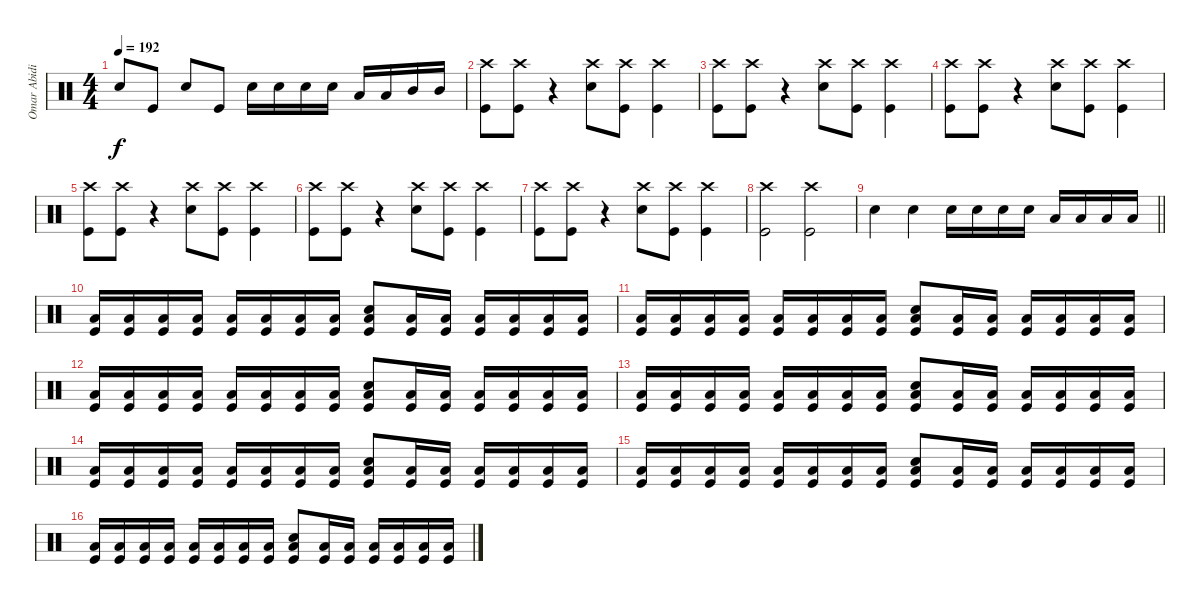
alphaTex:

\track ("Omar Abidi" "Omar Abidi") {instrument percussion}
\staff {score}
\articulation defaults
\ts (4 4)
\tempo 192
\clef neutral
\ks c "Snare (hit) 2".8{dy f} "Kick (hit)".8 "Snare (hit) 2".8 "Kick (hit)".8 "Snare (hit) 2".16 "Snare (hit) 2".16 "Snare (hit) 2".16 "Snare (hit) 2".16 "Low Floor Tom (hit)".16 "Low Floor Tom (hit)".16 "Mid Tom (hit)".16 "Mid Tom (hit)".16
|
("Crash high (hit)" "Kick (hit)").8 ("Crash high (hit)" "Kick (hit)").8 r.4 ("Crash high (hit)" "Snare (hit) 2").8 ("Crash high (hit)" "Kick (hit)").8 ("Crash high (hit)" "Kick (hit)").4 |
("Crash high (hit)" "Kick (hit)").8 ("Crash high (hit)" "Kick (hit)").8 r.4 ("Crash high (hit)" "Snare (hit) 2").8 ("Crash high (hit)" "Kick (hit)").8 ("Crash high (hit)" "Kick (hit)").4 |
("Crash high (hit)" "Kick (hit)").8 ("Crash high (hit)" "Kick (hit)").8 r.4 ("Crash high (hit)" "Snare (hit) 2").8 ("Crash high (hit)" "Kick (hit)").8 ("Crash high (hit)" "Kick (hit)").4 |
("Crash high (hit)" "Kick (hit)").8 ("Crash high (hit)" "Kick (hit)").8 r.4 ("Crash high (hit)" "Snare (hit) 2").8 ("Crash high (hit)" "Kick (hit)").8 ("Crash high (hit)" "Kick (hit)").4 |
("Crash high (hit)" "Kick (hit)").8 ("Crash high (hit)" "Kick (hit)").8 r.4 ("Crash high (hit)" "Snare (hit) 2").8 ("Crash high (hit)" "Kick (hit)").8 ("Crash high (hit)" "Kick (hit)").4 |
("Crash high (hit)" "Kick (hit)").8 ("Crash high (hit)" "Kick (hit)").8 r.4 ("Crash high (hit)" "Snare (hit) 2").8 ("Crash high (hit)" "Kick (hit)").8 ("Crash high (hit)" "Kick (hit)").4 |
("Crash high (hit)" "Kick (hit)").2 ("Crash high (hit)" "Kick (hit)").2 |
\barLineRight lightlight "Snare (hit) 2".4 "Snare (hit) 2".4 "Snare (hit) 2".16 "Snare (hit) 2".16 "Snare (hit) 2".16 "Snare (hit) 2".16 "Low Floor Tom (hit)".16 "Low Floor Tom (hit)".16 "Low Floor Tom (hit)".16 "Low Floor Tom (hit)".16
|
("Low Floor Tom (hit)" "Kick (hit)").16 ("Low Floor Tom (hit)" "Kick (hit)").16 ("Low Floor Tom (hit)" "Kick (hit)").16 ("Low Floor Tom (hit)" "Kick (hit)").16 ("Low Floor Tom (hit)" "Kick (hit)").16 ("Low Floor Tom (hit)" "Kick (hit)").16 ("Low Floor Tom (hit)" "Kick (hit)").16 ("Low Floor Tom (hit)" "Kick (hit)").16 ("Low Floor Tom (hit)" "Snare (hit) 2" "Kick (hit)").8 ("Low Floor Tom (hit)" "Kick (hit)").16 ("Low Floor Tom (hit)" "Kick (hit)").16 ("Low Floor Tom (hit)" "Kick (hit)").16 ("Low Floor Tom (hit)" "Kick (hit)").16 ("Low Floor Tom (hit)" "Kick (hit)").16 ("Low Floor Tom (hit)" "Kick (hit)").16 |
("Low Floor Tom (hit)" "Kick (hit)").16 ("Low Floor Tom (hit)" "Kick (hit)").16 ("Low Floor Tom (hit)" "Kick (hit)").16 ("Low Floor Tom (hit)" "Kick (hit)").16 ("Low Floor Tom (hit)" "Kick (hit)").16 ("Low Floor Tom (hit)" "Kick (hit)").16 ("Low Floor Tom (hit)" "Kick (hit)").16 ("Low Floor Tom (hit)" "Kick (hit)").16 ("Low Floor Tom (hit)" "Snare (hit) 2" "Kick (hit)").8 ("Low Floor Tom (hit)" "Kick (hit)").16 ("Low Floor Tom (hit)" "Kick (hit)").16 ("Low Floor Tom (hit)" "Kick (hit)").16 ("Low Floor Tom (hit)" "Kick (hit)").16 ("Low Floor Tom (hit)" "Kick (hit)").16 ("Low Floor Tom (hit)" "Kick (hit)").16 |
("Low Floor Tom (hit)" "Kick (hit)").16 ("Low Floor Tom (hit)" "Kick (hit)").16 ("Low Floor Tom (hit)" "Kick (hit)").16 ("Low Floor Tom (hit)" "Kick (hit)").16 ("Low Floor Tom (hit)" "Kick (hit)").16 ("Low Floor Tom (hit)" "Kick (hit)").16 ("Low Floor Tom (hit)" "Kick (hit)").16 ("Low Floor Tom (hit)" "Kick (hit)").16 ("Low Floor Tom (hit)" "Snare (hit) 2" "Kick (hit)").8 ("Low Floor Tom (hit)" "Kick (hit)").16 ("Low Floor Tom (hit)" "Kick (hit)").16 ("Low Floor Tom (hit)" "Kick (hit)").16 ("Low Floor Tom (hit)" "Kick (hit)").16 ("Low Floor Tom (hit)" "Kick (hit)").16 ("Low Floor Tom (hit)" "Kick (hit)").16 |
("Low Floor Tom (hit)" "Kick (hit)").16 ("Low Floor Tom (hit)" "Kick (hit)").16 ("Low Floor Tom (hit)" "Kick (hit)").16 ("Low Floor Tom (hit)" "Kick (hit)").16 ("Low Floor Tom (hit)" "Kick (hit)").16 ("Low Floor Tom (hit)" "Kick (hit)").16 ("Low Floor Tom (hit)" "Kick (hit)").16 ("Low Floor Tom (hit)" "Kick (hit)").16 ("Low Floor Tom (hit)" "Snare (hit) 2" "Kick (hit)").8 ("Low Floor Tom (hit)" "Kick (hit)").16 ("Low Floor Tom (hit)" "Kick (hit)").16 ("Low Floor Tom (hit)" "Kick (hit)").16 ("Low Floor Tom (hit)" "Kick (hit)").16 ("Low Floor Tom (hit)" "Kick (hit)").16 ("Low Floor Tom (hit)" "Kick (hit)").16 |
("Low Floor Tom (hit)" "Kick (hit)").16 ("Low Floor Tom (hit)" "Kick (hit)").16 ("Low Floor Tom (hit)" "Kick (hit)").16 ("Low Floor Tom (hit)" "Kick (hit)").16 ("Low Floor Tom (hit)" "Kick (hit)").16 ("Low Floor Tom (hit)" "Kick (hit)").16 ("Low Floor Tom (hit)" "Kick (hit)").16 ("Low Floor Tom (hit)" "Kick (hit)").16 ("Low Floor Tom (hit)" "Snare (hit) 2" "Kick (hit)").8 ("Low Floor Tom (hit)" "Kick (hit)").16 ("Low Floor Tom (hit)" "Kick (hit)").16 ("Low Floor Tom (hit)" "Kick (hit)").16 ("Low Floor Tom (hit)" "Kick (hit)").16 ("Low Floor Tom (hit)" "Kick (hit)").16 ("Low Floor Tom (hit)" "Kick (hit)").16 |
("Low Floor Tom (hit)" "Kick (hit)").16 ("Low Floor Tom (hit)" "Kick (hit)").16 ("Low Floor Tom (hit)" "Kick (hit)").16 ("Low Floor Tom (hit)" "Kick (hit)").16 ("Low Floor Tom (hit)" "Kick (hit)").16 ("Low Floor Tom (hit)" "Kick (hit)").16 ("Low Floor Tom (hit)" "Kick (hit)").16 ("Low Floor Tom (hit)" "Kick (hit)").16 ("Low Floor Tom (hit)" "Snare (hit) 2" "Kick (hit)").8 ("Low Floor Tom (hit)" "Kick (hit)").16 ("Low Floor Tom (hit)" "Kick (hit)").16 ("Low Floor Tom (hit)" "Kick (hit)").16 ("Low Floor Tom (hit)" "Kick (hit)").16 ("Low Floor Tom (hit)" "Kick (hit)").16 ("Low Floor Tom (hit)" "Kick (hit)").16 |
("Low Floor Tom (hit)" "Kick (hit)").16 ("Low Floor Tom (hit)" "Kick (hit)").16 ("Low Floor Tom (hit)" "Kick (hit)").16 ("Low Floor Tom (hit)" "Kick (hit)").16 ("Low Floor Tom (hit)" "Kick (hit)").16 ("Low Floor Tom (hit)" "Kick (hit)").16 ("Low Floor Tom (hit)" "Kick (hit)").16 ("Low Floor Tom (hit)" "Kick (hit)").16 ("Low Floor Tom (hit)" "Snare (hit) 2" "Kick (hit)").8 ("Low Floor Tom (hit)" "Kick (hit)").16 ("Low Floor Tom (hit)" "Kick (hit)").16 ("Low Floor Tom (hit)" "Kick (hit)").16 ("Low Floor Tom (hit)" "Kick (hit)").16 ("Low Floor Tom (hit)" "Kick (hit)").16 ("Low Floor Tom (hit)" "Kick (hit)").16
